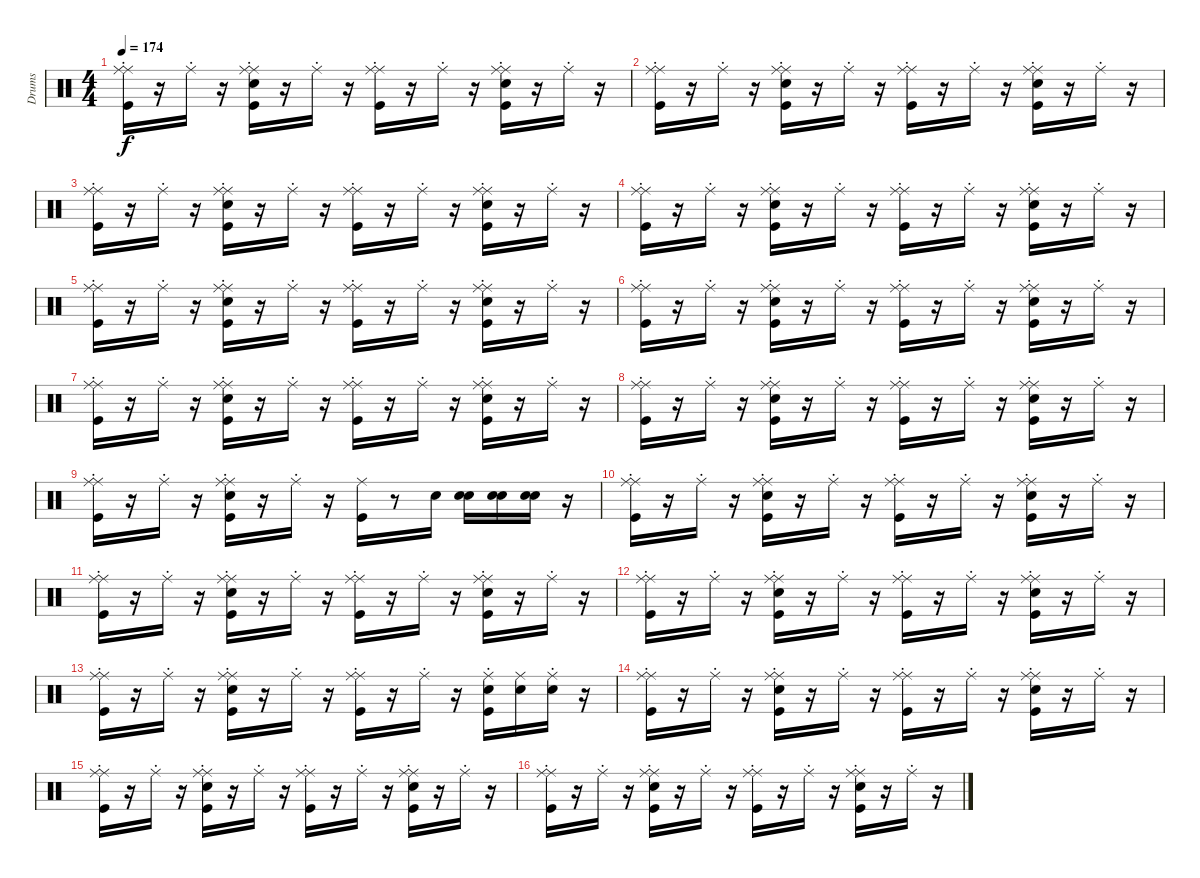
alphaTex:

\track ("Drums" "Drums") {instrument percussion}
\staff {score}
\articulation defaults
\ts (4 4)
\tempo 174
\clef neutral
\ks c
("Ride (middle)" "Kick (hit)" "Ride (choke)").16{dy f} r.16 "Ride (choke)".16 r.16 ("Ride (middle)" "Kick (hit)" "Snare (hit) 2" "Ride (choke)").16 r.16 "Ride (choke)".16 r.16 ("Ride (middle)" "Kick (hit)" "Ride (choke)").16 r.16 "Ride (choke)".16 r.16 ("Kick (hit)" "Snare (hit) 2" "Ride (choke)" "Ride (middle)").16 r.16 "Ride (choke)".16 r.16 |
("Ride (middle)" "Kick (hit)" "Ride (choke)").16 r.16 "Ride (choke)".16 r.16 ("Ride (middle)" "Kick (hit)" "Snare (hit) 2" "Ride (choke)").16 r.16 "Ride (choke)".16 r.16 ("Ride (middle)" "Kick (hit)" "Ride (choke)").16 r.16 "Ride (choke)".16 r.16 ("Ride (middle)" "Kick (hit)" "Snare (hit) 2" "Ride (choke)").16 r.16 "Ride (choke)".16 r.16 |
("Ride (middle)" "Kick (hit)" "Ride (choke)").16 r.16 "Ride (choke)".16 r.16 ("Ride (middle)" "Kick (hit)" "Snare (hit) 2" "Ride (choke)").16 r.16 "Ride (choke)".16 r.16 ("Ride (middle)" "Kick (hit)" "Ride (choke)").16 r.16 "Ride (choke)".16 r.16 ("Kick (hit)" "Snare (hit) 2" "Ride (choke)" "Ride (middle)").16 r.16 "Ride (choke)".16 r.16 |
("Ride (middle)" "Kick (hit)" "Ride (choke)").16 r.16 "Ride (choke)".16 r.16 ("Ride (middle)" "Kick (hit)" "Snare (hit) 2" "Ride (choke)").16 r.16 "Ride (choke)".16 r.16 ("Ride (middle)" "Kick (hit)" "Ride (choke)").16 r.16 "Ride (choke)".16 r.16 ("Ride (middle)" "Kick (hit)" "Snare (hit) 2" "Ride (choke)").16 r.16 "Ride (choke)".16 r.16 |
("Ride (middle)" "Kick (hit)" "Ride (choke)").16 r.16 "Ride (choke)".16 r.16 ("Ride (middle)" "Kick (hit)" "Snare (hit) 2" "Ride (choke)").16 r.16 "Ride (choke)".16 r.16 ("Ride (middle)" "Kick (hit)" "Ride (choke)").16 r.16 "Ride (choke)".16 r.16 ("Kick (hit)" "Snare (hit) 2" "Ride (choke)" "Ride (middle)").16 r.16 "Ride (choke)".16 r.16 |
("Ride (middle)" "Kick (hit)" "Ride (choke)").16 r.16 "Ride (choke)".16 r.16 ("Ride (middle)" "Kick (hit)" "Snare (hit) 2" "Ride (choke)").16 r.16 "Ride (choke)".16 r.16 ("Ride (middle)" "Kick (hit)" "Ride (choke)").16 r.16 "Ride (choke)".16 r.16 ("Ride (middle)" "Kick (hit)" "Snare (hit) 2" "Ride (choke)").16 r.16 "Ride (choke)".16 r.16 |
("Ride (middle)" "Kick (hit)" "Ride (choke)").16 r.16 "Ride (choke)".16 r.16 ("Ride (middle)" "Kick (hit)" "Snare (hit) 2" "Ride (choke)").16 r.16 "Ride (choke)".16 r.16 ("Ride (middle)" "Kick (hit)" "Ride (choke)").16 r.16 "Ride (choke)".16 r.16 ("Kick (hit)" "Snare (hit) 2" "Ride (choke)" "Ride (middle)").16 r.16 "Ride (choke)".16 r.16 |
("Ride (middle)" "Kick (hit)" "Ride (choke)").16 r.16 "Ride (choke)".16 r.16 ("Ride (middle)" "Kick (hit)" "Snare (hit) 2" "Ride (choke)").16 r.16 "Ride (choke)".16 r.16 ("Ride (middle)" "Kick (hit)" "Ride (choke)").16 r.16 "Ride (choke)".16 r.16 ("Ride (middle)" "Kick (hit)" "Snare (hit) 2" "Ride (choke)").16 r.16 "Ride (choke)".16 r.16 |
("Ride (middle)" "Kick (hit)" "Ride (choke)").16 r.16 "Ride (choke)".16 r.16 ("Ride (middle)" "Kick (hit)" "Snare (hit) 2" "Ride (choke)").16 r.16 "Ride (choke)".16 r.16 ("Ride (middle)" "Kick (hit)").16 r.8 "Snare (hit) 2".16 ("Snare (hit)" "Snare (hit) 2").16 ("Snare (hit)" "Snare (hit) 2").16 ("Snare (hit)" "Snare (hit) 2").16 r.16 |
("Ride (middle)" "Kick (hit)" "Ride (choke)").16 r.16 "Ride (choke)".16 r.16 ("Ride (middle)" "Kick (hit)" "Snare (hit) 2" "Ride (choke)").16 r.16 "Ride (choke)".16 r.16 ("Ride (middle)" "Kick (hit)" "Ride (choke)").16 r.16 "Ride (choke)".16 r.16 ("Ride (middle)" "Kick (hit)" "Snare (hit) 2" "Ride (choke)").16 r.16 "Ride (choke)".16 r.16 |
("Ride (middle)" "Kick (hit)" "Ride (choke)").16 r.16 "Ride (choke)".16 r.16 ("Ride (middle)" "Kick (hit)" "Snare (hit) 2" "Ride (choke)").16 r.16 "Ride (choke)".16 r.16 ("Ride (middle)" "Kick (hit)" "Ride (choke)").16 r.16 "Ride (choke)".16 r.16 ("Kick (hit)" "Snare (hit) 2" "Ride (choke)" "Ride (middle)").16 r.16 "Ride (choke)".16 r.16 |
("Ride (middle)" "Kick (hit)" "Ride (choke)").16 r.16 "Ride (choke)".16 r.16 ("Ride (middle)" "Kick (hit)" "Snare (hit) 2" "Ride (choke)").16 r.16 "Ride (choke)".16 r.16 ("Ride (middle)" "Kick (hit)" "Ride (choke)").16 r.16 "Ride (choke)".16 r.16 ("Ride (middle)" "Kick (hit)" "Snare (hit) 2" "Ride (choke)").16 r.16 "Ride (choke)".16 r.16 |
("Ride (middle)" "Kick (hit)" "Ride (choke)").16 r.16 "Ride (choke)".16 r.16 ("Ride (middle)" "Kick (hit)" "Snare (hit) 2" "Ride (choke)").16 r.16 "Ride (choke)".16 r.16 ("Ride (middle)" "Kick (hit)" "Ride (choke)").16 r.16 "Ride (choke)".16 r.16 ("Snare (hit) 2" "Kick (hit)" "Ride (choke)").16 ("Snare (hit)" "Ride (middle)").16 ("Snare (hit)" "Ride (choke)").16 r.16 |
("Ride (middle)" "Kick (hit)" "Ride (choke)").16 r.16 "Ride (choke)".16 r.16 ("Ride (middle)" "Kick (hit)" "Snare (hit) 2" "Ride (choke)").16 r.16 "Ride (choke)".16 r.16 ("Ride (middle)" "Kick (hit)" "Ride (choke)").16 r.16 "Ride (choke)".16 r.16 ("Ride (middle)" "Kick (hit)" "Snare (hit) 2" "Ride (choke)").16 r.16 "Ride (choke)".16 r.16 |
("Ride (middle)" "Kick (hit)" "Ride (choke)").16 r.16 "Ride (choke)".16 r.16 ("Ride (middle)" "Kick (hit)" "Snare (hit) 2" "Ride (choke)").16 r.16 "Ride (choke)".16 r.16 ("Ride (middle)" "Kick (hit)" "Ride (choke)").16 r.16 "Ride (choke)".16 r.16 ("Kick (hit)" "Snare (hit) 2" "Ride (choke)" "Ride (middle)").16 r.16 "Ride (choke)".16 r.16 |
("Ride (middle)" "Kick (hit)" "Ride (choke)").16 r.16 "Ride (choke)".16 r.16 ("Ride (middle)" "Kick (hit)" "Snare (hit) 2" "Ride (choke)").16 r.16 "Ride (choke)".16 r.16 ("Ride (middle)" "Kick (hit)" "Ride (choke)").16 r.16 "Ride (choke)".16 r.16 ("Ride (middle)" "Kick (hit)" "Snare (hit) 2" "Ride (choke)").16 r.16 "Ride (choke)".16 r.16
